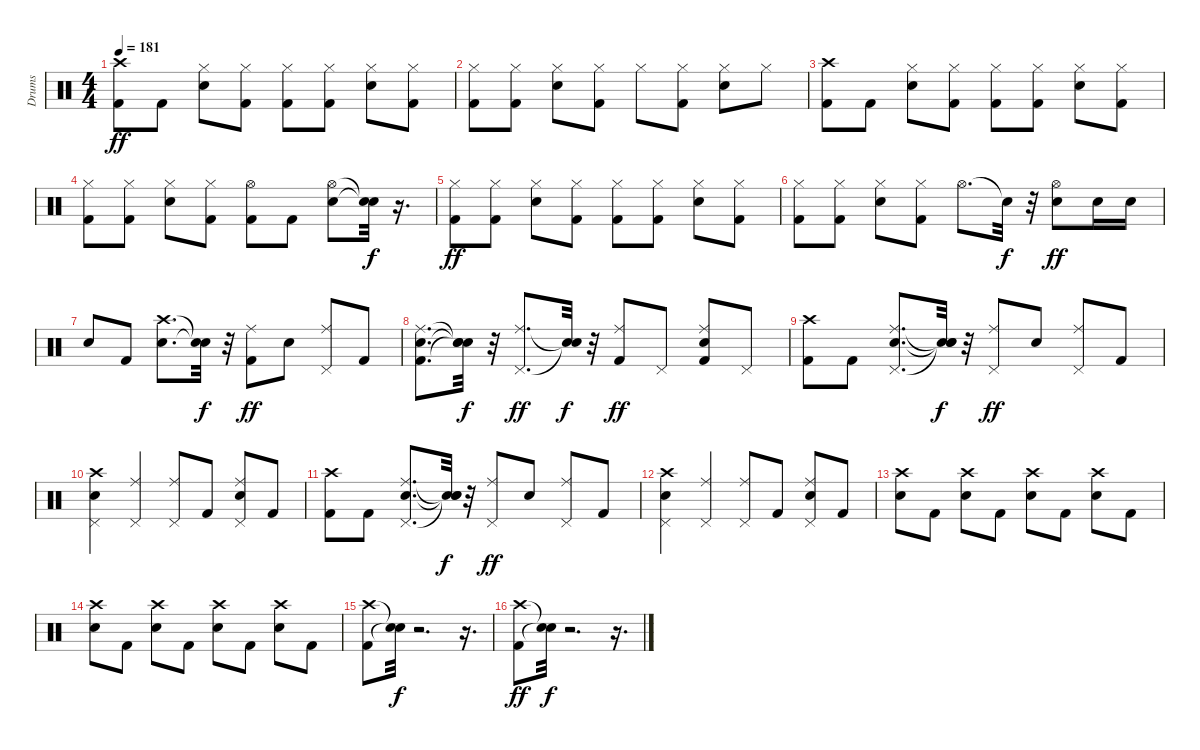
\track ("Drums" "Drums") {instrument percussion}
\staff {score}
\articulation defaults
\ts (4 4)
\tempo 181
\clef neutral
\ks c
("Kick (hit) 2" "Crash high (hit)").8{dy ff} "Kick (hit) 2".8 ("Snare (hit) 2" "Hi-Hat (closed)").8 ("Kick (hit) 2" "Hi-Hat (closed)").8 ("Kick (hit) 2" "Hi-Hat (closed)").8 ("Kick (hit) 2" "Hi-Hat (closed)").8 ("Snare (hit) 2" "Hi-Hat (closed)").8 ("Kick (hit) 2" "Hi-Hat (closed)").8 |
("Kick (hit) 2" "Hi-Hat (closed)").8 ("Kick (hit) 2" "Hi-Hat (closed)").8 ("Snare (hit) 2" "Hi-Hat (closed)").8 ("Kick (hit) 2" "Hi-Hat (closed)").8 "Hi-Hat (closed)".8 ("Kick (hit) 2" "Hi-Hat (closed)").8 ("Snare (hit) 2" "Hi-Hat (closed)").8 "Hi-Hat (closed)".8 |
("Kick (hit) 2" "Crash high (hit)").8 "Kick (hit) 2".8 ("Snare (hit) 2" "Hi-Hat (closed)").8 ("Kick (hit) 2" "Hi-Hat (closed)").8 ("Kick (hit) 2" "Hi-Hat (closed)").8 ("Kick (hit) 2" "Hi-Hat (closed)").8 ("Snare (hit) 2" "Hi-Hat (closed)").8 ("Kick (hit) 2" "Hi-Hat (closed)").8 |
("Kick (hit) 2" "Hi-Hat (closed)").8 ("Kick (hit) 2" "Hi-Hat (closed)").8 ("Snare (hit) 2" "Hi-Hat (closed)").8 ("Kick (hit) 2" "Hi-Hat (closed)").8 ("Kick (hit) 2" "Hi-Hat (open)").8 "Kick (hit) 2".8 ("Snare (hit) 2" "Hi-Hat (open)").8 ("Snare (hit)"{t} "Snare (hit)"{t}).32{dy f} r.16{d} |
("Kick (hit) 2" "Hi-Hat (closed)").8{dy ff} ("Kick (hit) 2" "Hi-Hat (closed)").8 ("Snare (hit) 2" "Hi-Hat (closed)").8 ("Kick (hit) 2" "Hi-Hat (closed)").8 ("Kick (hit) 2" "Hi-Hat (closed)").8 ("Kick (hit) 2" "Hi-Hat (closed)").8 ("Snare (hit) 2" "Hi-Hat (closed)").8 ("Kick (hit) 2" "Hi-Hat (closed)").8 |
("Kick (hit) 2" "Hi-Hat (closed)").8 ("Kick (hit) 2" "Hi-Hat (closed)").8 ("Snare (hit) 2" "Hi-Hat (closed)").8 ("Kick (hit) 2" "Hi-Hat (closed)").8 "Hi-Hat (open)".8{d} "Snare (hit)"{t}.32{dy f} r.32 ("Snare (hit) 2" "Hi-Hat (open)").8{dy ff} "Snare (hit) 2".16 "Snare (hit) 2".16 |
"Snare (hit) 2".8 "Kick (hit) 2".8 ("Snare (hit) 2" "Crash high (hit)").8{d} ("Snare (hit)"{t} "Snare (hit)"{t}).32{dy f} r.32 ("Kick (hit) 2" "Ride (middle)").8{dy ff} "Snare (hit) 2".8 ("Pedal Hi-Hat (hit)" "Ride (middle)").8 "Kick (hit) 2".8 |
("Kick (hit) 2" "Snare (hit) 2" "Ride (middle)").8{d} ("Snare (hit)"{t} "Snare (hit)"{t} "Snare (hit)"{t}).32{dy f} r.32 ("Pedal Hi-Hat (hit)" "Ride (middle)").8{d dy ff} ("Snare (hit)"{t} "Snare (hit)"{t}).32{dy f} r.32 ("Kick (hit) 2" "Ride (middle)").8{dy ff} "Pedal Hi-Hat (hit)".8 ("Kick (hit) 2" "Snare (hit) 2" "Ride (middle)").8 "Pedal Hi-Hat (hit)".8 |
("Kick (hit) 2" "Crash high (hit)").8 "Kick (hit) 2".8 ("Snare (hit) 2" "Pedal Hi-Hat (hit)" "Ride (middle)").8{d} ("Snare (hit)"{t} "Snare (hit)"{t} "Snare (hit)"{t}).32{dy f} r.32 ("Pedal Hi-Hat (hit)" "Ride (middle)").8{dy ff} "Snare (hit) 2".8 ("Pedal Hi-Hat (hit)" "Ride (middle)").8 "Kick (hit) 2".8 |
("Snare (hit) 2" "Pedal Hi-Hat (hit)" "Crash high (hit)").4 ("Pedal Hi-Hat (hit)" "Ride (middle)").4 ("Pedal Hi-Hat (hit)" "Ride (middle)").8 "Kick (hit) 2".8 ("Snare (hit) 2" "Pedal Hi-Hat (hit)" "Ride (middle)").8 "Kick (hit) 2".8 |
("Kick (hit) 2" "Crash high (hit)").8 "Kick (hit) 2".8 ("Snare (hit) 2" "Pedal Hi-Hat (hit)" "Ride (middle)").8{d} ("Snare (hit)"{t} "Snare (hit)"{t} "Snare (hit)"{t}).32{dy f} r.32 ("Pedal Hi-Hat (hit)" "Ride (middle)").8{dy ff} "Snare (hit) 2".8 ("Pedal Hi-Hat (hit)" "Ride (middle)").8 "Kick (hit) 2".8 |
("Snare (hit) 2" "Pedal Hi-Hat (hit)" "Crash high (hit)").4 ("Pedal Hi-Hat (hit)" "Ride (middle)").4 ("Pedal Hi-Hat (hit)" "Ride (middle)").8 "Kick (hit) 2".8 ("Snare (hit) 2" "Pedal Hi-Hat (hit)" "Ride (middle)").8 "Kick (hit) 2".8 |
("Snare (hit) 2" "Crash high (hit)").8 "Kick (hit) 2".8 ("Snare (hit) 2" "Crash high (hit)").8 "Kick (hit) 2".8 ("Snare (hit) 2" "Crash high (hit)").8 "Kick (hit) 2".8 ("Snare (hit) 2" "Crash high (hit)").8 "Kick (hit) 2".8 |
("Snare (hit) 2" "Crash high (hit)").8 "Kick (hit) 2".8 ("Snare (hit) 2" "Crash high (hit)").8 "Kick (hit) 2".8 ("Snare (hit) 2" "Crash high (hit)").8 "Kick (hit) 2".8 ("Snare (hit) 2" "Crash high (hit)").8 "Kick (hit) 2".8 |
("Kick (hit) 2" "Crash high (hit)").8 ("Snare (hit)"{t} "Snare (hit)"{t}).32{dy f} r.2{d} r.16{d} |
("Kick (hit) 2" "Crash high (hit)").8{dy ff} ("Snare (hit)"{t} "Snare (hit)"{t}).32{dy f} r.2{d} r.16{d}
